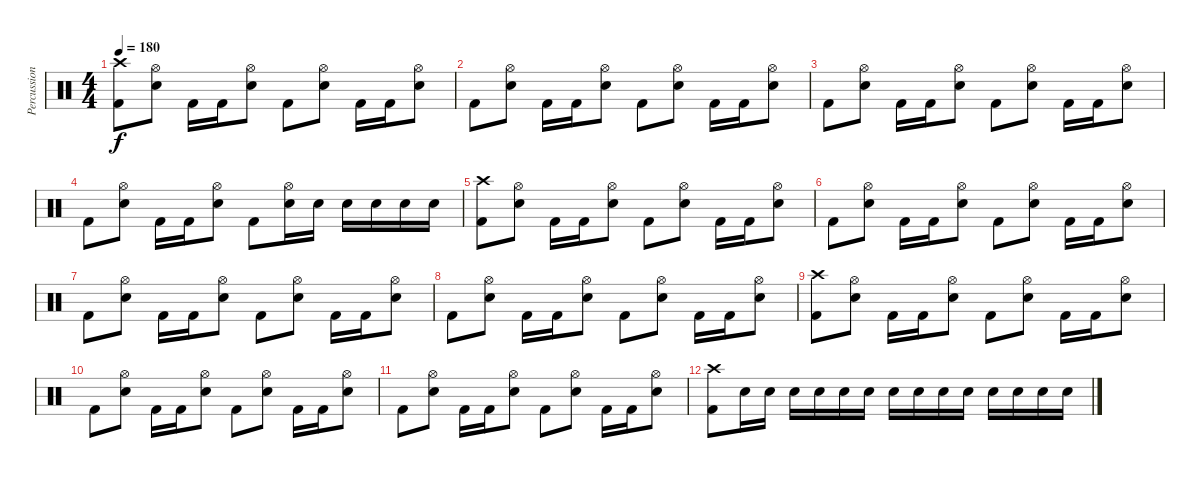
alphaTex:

\track ("Percussion" "Percussion") {instrument percussion}
\staff {score}
\articulation defaults
\ts (4 4)
\tempo 180
\clef neutral
\ks c
("Crash high (hit)" "Kick (hit) 2").8{dy f volume 8} ("Hi-Hat (open)" "Electric Snare (hit)").8 "Kick (hit) 2".16 "Kick (hit) 2".16 ("Hi-Hat (open)" "Electric Snare (hit)").8 "Kick (hit) 2".8 ("Hi-Hat (open)" "Electric Snare (hit)").8 "Kick (hit) 2".16 "Kick (hit) 2".16 ("Hi-Hat (open)" "Electric Snare (hit)").8 |
"Kick (hit) 2".8 ("Hi-Hat (open)" "Electric Snare (hit)").8 "Kick (hit) 2".16 "Kick (hit) 2".16 ("Hi-Hat (open)" "Electric Snare (hit)").8 "Kick (hit) 2".8 ("Hi-Hat (open)" "Electric Snare (hit)").8 "Kick (hit) 2".16 "Kick (hit) 2".16 ("Hi-Hat (open)" "Electric Snare (hit)").8 |
"Kick (hit) 2".8 ("Hi-Hat (open)" "Electric Snare (hit)").8 "Kick (hit) 2".16 "Kick (hit) 2".16 ("Hi-Hat (open)" "Electric Snare (hit)").8 "Kick (hit) 2".8 ("Hi-Hat (open)" "Electric Snare (hit)").8 "Kick (hit) 2".16 "Kick (hit) 2".16 ("Hi-Hat (open)" "Electric Snare (hit)").8 |
"Kick (hit) 2".8 ("Hi-Hat (open)" "Electric Snare (hit)").8 "Kick (hit) 2".16 "Kick (hit) 2".16 ("Hi-Hat (open)" "Electric Snare (hit)").8 "Kick (hit) 2".8 ("Hi-Hat (open)" "Electric Snare (hit)").16 "Electric Snare (hit)".16 "Electric Snare (hit)".16 "Electric Snare (hit)".16 "Electric Snare (hit)".16 "Electric Snare (hit)".16 |
("Crash high (hit)" "Kick (hit) 2").8{volume 6} ("Hi-Hat (open)" "Electric Snare (hit)").8 "Kick (hit) 2".16 "Kick (hit) 2".16 ("Hi-Hat (open)" "Electric Snare (hit)").8 "Kick (hit) 2".8 ("Hi-Hat (open)" "Electric Snare (hit)").8 "Kick (hit) 2".16 "Kick (hit) 2".16 ("Hi-Hat (open)" "Electric Snare (hit)").8 |
"Kick (hit) 2".8 ("Hi-Hat (open)" "Electric Snare (hit)").8 "Kick (hit) 2".16 "Kick (hit) 2".16 ("Hi-Hat (open)" "Electric Snare (hit)").8 "Kick (hit) 2".8 ("Hi-Hat (open)" "Electric Snare (hit)").8 "Kick (hit) 2".16 "Kick (hit) 2".16 ("Hi-Hat (open)" "Electric Snare (hit)").8 |
"Kick (hit) 2".8 ("Hi-Hat (open)" "Electric Snare (hit)").8 "Kick (hit) 2".16 "Kick (hit) 2".16 ("Hi-Hat (open)" "Electric Snare (hit)").8 "Kick (hit) 2".8 ("Hi-Hat (open)" "Electric Snare (hit)").8 "Kick (hit) 2".16 "Kick (hit) 2".16 ("Hi-Hat (open)" "Electric Snare (hit)").8 |
"Kick (hit) 2".8 ("Hi-Hat (open)" "Electric Snare (hit)").8 "Kick (hit) 2".16 "Kick (hit) 2".16 ("Hi-Hat (open)" "Electric Snare (hit)").8 "Kick (hit) 2".8 ("Hi-Hat (open)" "Electric Snare (hit)").8 "Kick (hit) 2".16 "Kick (hit) 2".16 ("Hi-Hat (open)" "Electric Snare (hit)").8 |
("Crash high (hit)" "Kick (hit) 2").8{volume 0} ("Hi-Hat (open)" "Electric Snare (hit)").8 "Kick (hit) 2".16 "Kick (hit) 2".16 ("Hi-Hat (open)" "Electric Snare (hit)").8 "Kick (hit) 2".8 ("Hi-Hat (open)" "Electric Snare (hit)").8 "Kick (hit) 2".16 "Kick (hit) 2".16 ("Hi-Hat (open)" "Electric Snare (hit)").8 |
"Kick (hit) 2".8 ("Hi-Hat (open)" "Electric Snare (hit)").8 "Kick (hit) 2".16 "Kick (hit) 2".16 ("Hi-Hat (open)" "Electric Snare (hit)").8 "Kick (hit) 2".8 ("Hi-Hat (open)" "Electric Snare (hit)").8 "Kick (hit) 2".16 "Kick (hit) 2".16 ("Hi-Hat (open)" "Electric Snare (hit)").8 |
"Kick (hit) 2".8 ("Hi-Hat (open)" "Electric Snare (hit)").8 "Kick (hit) 2".16 "Kick (hit) 2".16 ("Hi-Hat (open)" "Electric Snare (hit)").8 "Kick (hit) 2".8 ("Hi-Hat (open)" "Electric Snare (hit)").8 "Kick (hit) 2".16 "Kick (hit) 2".16 ("Hi-Hat (open)" "Electric Snare (hit)").8 |
("Crash high (hit)" "Kick (hit) 2").8 "Electric Snare (hit)".16 "Electric Snare (hit)".16 "Electric Snare (hit)".16 "Electric Snare (hit)".16 "Electric Snare (hit)".16 "Electric Snare (hit)".16 "Electric Snare (hit)".16 "Electric Snare (hit)".16 "Electric Snare (hit)".16 "Electric Snare (hit)".16 "Electric Snare (hit)".16 "Electric Snare (hit)".16 "Electric Snare (hit)".16 "Electric Snare (hit)".16
